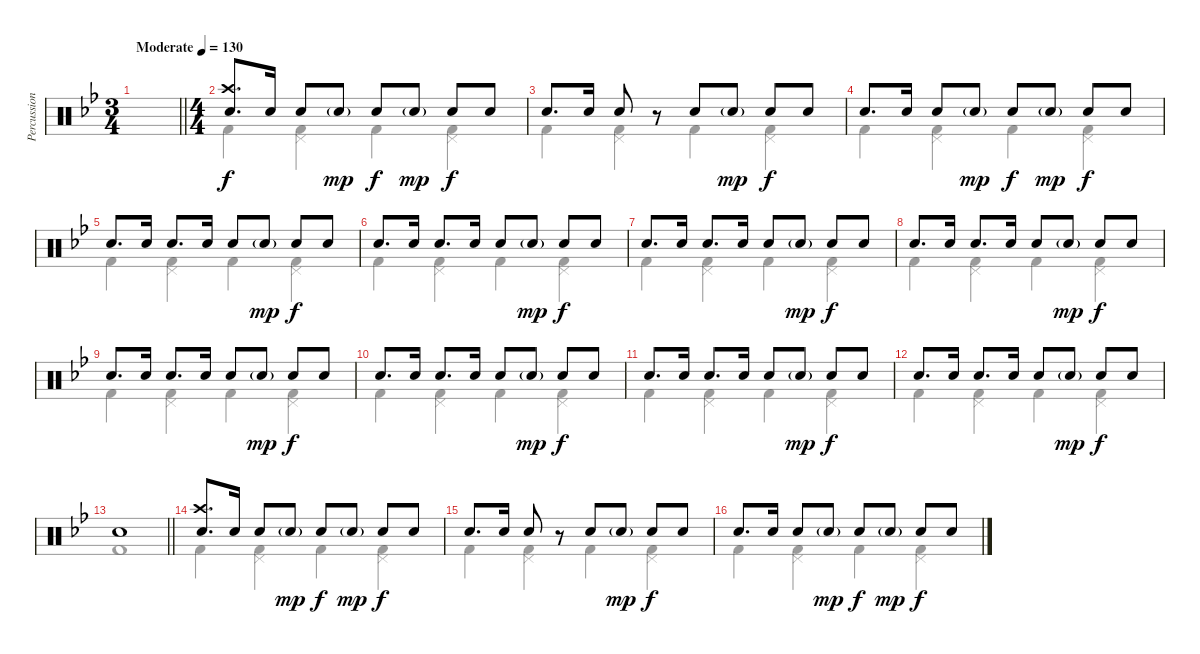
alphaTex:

\track ("Percussion" "Percussion") {instrument percussion}
\staff {score}
\articulation defaults
\voice
\ts (3 4)
\tempo (130 "Moderate")
\clef neutral
\barLineRight lightlight
\ks gminor
|
\ts (4 4)
("Crash high (hit)" "Snare (hit) 2").8{d} "Snare (hit) 2".16 "Snare (hit) 2".8 "Snare (hit) 2"{g}.8{dy mp} "Snare (hit) 2".8{dy f} "Snare (hit) 2"{g}.8{dy mp} "Snare (hit) 2".8{dy f} "Snare (hit) 2".8 |
"Snare (hit) 2".8{d} "Snare (hit) 2".16 "Snare (hit) 2".8 r.8 "Snare (hit) 2".8 "Snare (hit) 2"{g}.8{dy mp} "Snare (hit) 2".8{dy f} "Snare (hit) 2".8 |
"Snare (hit) 2".8{d} "Snare (hit) 2".16 "Snare (hit) 2".8 "Snare (hit) 2"{g}.8{dy mp} "Snare (hit) 2".8{dy f} "Snare (hit) 2"{g}.8{dy mp} "Snare (hit) 2".8{dy f} "Snare (hit) 2".8 |
"Snare (hit) 2".8{d} "Snare (hit) 2".16 "Snare (hit) 2".8{d} "Snare (hit) 2".16 "Snare (hit) 2".8 "Snare (hit) 2"{g}.8{dy mp} "Snare (hit) 2".8{dy f} "Snare (hit) 2".8 |
"Snare (hit) 2".8{d} "Snare (hit) 2".16 "Snare (hit) 2".8{d} "Snare (hit) 2".16 "Snare (hit) 2".8 "Snare (hit) 2"{g}.8{dy mp} "Snare (hit) 2".8{dy f} "Snare (hit) 2".8 |
"Snare (hit) 2".8{d} "Snare (hit) 2".16 "Snare (hit) 2".8{d} "Snare (hit) 2".16 "Snare (hit) 2".8 "Snare (hit) 2"{g}.8{dy mp} "Snare (hit) 2".8{dy f} "Snare (hit) 2".8 |
"Snare (hit) 2".8{d} "Snare (hit) 2".16 "Snare (hit) 2".8{d} "Snare (hit) 2".16 "Snare (hit) 2".8 "Snare (hit) 2"{g}.8{dy mp} "Snare (hit) 2".8{dy f} "Snare (hit) 2".8 |
"Snare (hit) 2".8{d} "Snare (hit) 2".16 "Snare (hit) 2".8{d} "Snare (hit) 2".16 "Snare (hit) 2".8 "Snare (hit) 2"{g}.8{dy mp} "Snare (hit) 2".8{dy f} "Snare (hit) 2".8 |
"Snare (hit) 2".8{d} "Snare (hit) 2".16 "Snare (hit) 2".8{d} "Snare (hit) 2".16 "Snare (hit) 2".8 "Snare (hit) 2"{g}.8{dy mp} "Snare (hit) 2".8{dy f} "Snare (hit) 2".8 |
"Snare (hit) 2".8{d} "Snare (hit) 2".16 "Snare (hit) 2".8{d} "Snare (hit) 2".16 "Snare (hit) 2".8 "Snare (hit) 2"{g}.8{dy mp} "Snare (hit) 2".8{dy f} "Snare (hit) 2".8 |
"Snare (hit) 2".8{d} "Snare (hit) 2".16 "Snare (hit) 2".8{d} "Snare (hit) 2".16 "Snare (hit) 2".8 "Snare (hit) 2"{g}.8{dy mp} "Snare (hit) 2".8{dy f} "Snare (hit) 2".8 |
\barLineRight lightlight "Snare (hit) 2".1
|
("Crash high (hit)" "Snare (hit) 2").8{d} "Snare (hit) 2".16 "Snare (hit) 2".8 "Snare (hit) 2"{g}.8{dy mp} "Snare (hit) 2".8{dy f} "Snare (hit) 2"{g}.8{dy mp} "Snare (hit) 2".8{dy f} "Snare (hit) 2".8 |
"Snare (hit) 2".8{d} "Snare (hit) 2".16 "Snare (hit) 2".8 r.8 "Snare (hit) 2".8 "Snare (hit) 2"{g}.8{dy mp} "Snare (hit) 2".8{dy f} "Snare (hit) 2".8 |
"Snare (hit) 2".8{d} "Snare (hit) 2".16 "Snare (hit) 2".8 "Snare (hit) 2"{g}.8{dy mp} "Snare (hit) 2".8{dy f} "Snare (hit) 2"{g}.8{dy mp} "Snare (hit) 2".8{dy f} "Snare (hit) 2".8
\voice
\clef neutral
\ottava regular
\simile none
\barLineRight lightlight
\ks gminor
|
"Kick (hit) 2".4 ("Kick (hit) 2" "Pedal Hi-Hat (hit)").4 "Kick (hit) 2".4 ("Kick (hit) 2" "Pedal Hi-Hat (hit)").4 |
"Kick (hit) 2".4 ("Kick (hit) 2" "Pedal Hi-Hat (hit)").4 "Kick (hit) 2".4 ("Kick (hit) 2" "Pedal Hi-Hat (hit)").4 |
"Kick (hit) 2".4 ("Kick (hit) 2" "Pedal Hi-Hat (hit)").4 "Kick (hit) 2".4 ("Kick (hit) 2" "Pedal Hi-Hat (hit)").4 |
"Kick (hit) 2".4 ("Kick (hit) 2" "Pedal Hi-Hat (hit)").4 "Kick (hit) 2".4 ("Kick (hit) 2" "Pedal Hi-Hat (hit)").4 |
"Kick (hit) 2".4 ("Kick (hit) 2" "Pedal Hi-Hat (hit)").4 "Kick (hit) 2".4 ("Kick (hit) 2" "Pedal Hi-Hat (hit)").4 |
"Kick (hit) 2".4 ("Kick (hit) 2" "Pedal Hi-Hat (hit)").4 "Kick (hit) 2".4 ("Kick (hit) 2" "Pedal Hi-Hat (hit)").4 |
"Kick (hit) 2".4 ("Kick (hit) 2" "Pedal Hi-Hat (hit)").4 "Kick (hit) 2".4 ("Kick (hit) 2" "Pedal Hi-Hat (hit)").4 |
"Kick (hit) 2".4 ("Kick (hit) 2" "Pedal Hi-Hat (hit)").4 "Kick (hit) 2".4 ("Kick (hit) 2" "Pedal Hi-Hat (hit)").4 |
"Kick (hit) 2".4 ("Kick (hit) 2" "Pedal Hi-Hat (hit)").4 "Kick (hit) 2".4 ("Kick (hit) 2" "Pedal Hi-Hat (hit)").4 |
"Kick (hit) 2".4 ("Kick (hit) 2" "Pedal Hi-Hat (hit)").4 "Kick (hit) 2".4 ("Kick (hit) 2" "Pedal Hi-Hat (hit)").4 |
"Kick (hit) 2".4 ("Kick (hit) 2" "Pedal Hi-Hat (hit)").4 "Kick (hit) 2".4 ("Kick (hit) 2" "Pedal Hi-Hat (hit)").4 |
\barLineRight lightlight "Kick (hit) 2".1
|
"Kick (hit) 2".4 ("Kick (hit) 2" "Pedal Hi-Hat (hit)").4 "Kick (hit) 2".4 ("Kick (hit) 2" "Pedal Hi-Hat (hit)").4 |
"Kick (hit) 2".4 ("Kick (hit) 2" "Pedal Hi-Hat (hit)").4 "Kick (hit) 2".4 ("Kick (hit) 2" "Pedal Hi-Hat (hit)").4 |
"Kick (hit) 2".4 ("Kick (hit) 2" "Pedal Hi-Hat (hit)").4 "Kick (hit) 2".4 ("Kick (hit) 2" "Pedal Hi-Hat (hit)").4
